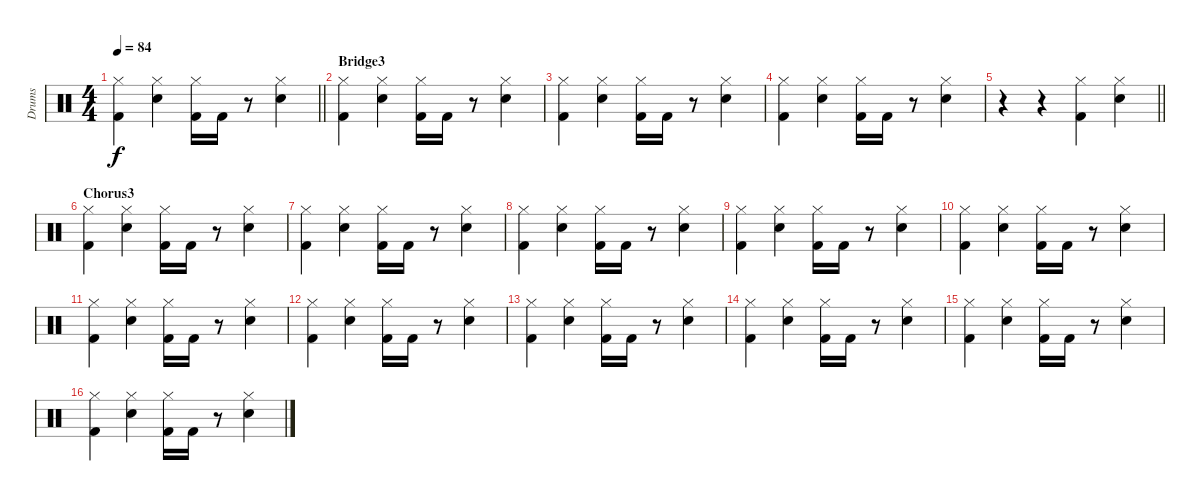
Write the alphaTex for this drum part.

\track ("Drums" "Drums") {instrument percussion}
\staff {score}
\articulation defaults
\ts (4 4)
\tempo 84
\clef neutral
\barLineRight lightlight
\ks c
("Hi-Hat (closed)" "Kick (hit) 2").4{dy f} ("Hi-Hat (closed)" "Snare (hit) 2").4 ("Hi-Hat (closed)" "Kick (hit) 2").16 "Kick (hit) 2".16 r.8 ("Hi-Hat (closed)" "Snare (hit) 2").4 |
\section ("" "Bridge3")
("Hi-Hat (closed)" "Kick (hit) 2").4 ("Hi-Hat (closed)" "Snare (hit) 2").4 ("Hi-Hat (closed)" "Kick (hit) 2").16 "Kick (hit) 2".16 r.8 ("Hi-Hat (closed)" "Snare (hit) 2").4 |
("Hi-Hat (closed)" "Kick (hit) 2").4 ("Hi-Hat (closed)" "Snare (hit) 2").4 ("Hi-Hat (closed)" "Kick (hit) 2").16 "Kick (hit) 2".16 r.8 ("Hi-Hat (closed)" "Snare (hit) 2").4 |
("Hi-Hat (closed)" "Kick (hit) 2").4 ("Hi-Hat (closed)" "Snare (hit) 2").4 ("Hi-Hat (closed)" "Kick (hit) 2").16 "Kick (hit) 2".16 r.8 ("Hi-Hat (closed)" "Snare (hit) 2").4 |
\barLineRight lightlight
r.4 r.4 ("Hi-Hat (closed)" "Kick (hit) 2").4 ("Hi-Hat (closed)" "Snare (hit) 2").4 |
\section ("" "Chorus3")
("Hi-Hat (closed)" "Kick (hit) 2").4 ("Hi-Hat (closed)" "Snare (hit) 2").4 ("Hi-Hat (closed)" "Kick (hit) 2").16 "Kick (hit) 2".16 r.8 ("Hi-Hat (closed)" "Snare (hit) 2").4 |
("Hi-Hat (closed)" "Kick (hit) 2").4 ("Hi-Hat (closed)" "Snare (hit) 2").4 ("Hi-Hat (closed)" "Kick (hit) 2").16 "Kick (hit) 2".16 r.8 ("Hi-Hat (closed)" "Snare (hit) 2").4 |
("Hi-Hat (closed)" "Kick (hit) 2").4 ("Hi-Hat (closed)" "Snare (hit) 2").4 ("Hi-Hat (closed)" "Kick (hit) 2").16 "Kick (hit) 2".16 r.8 ("Hi-Hat (closed)" "Snare (hit) 2").4 |
("Hi-Hat (closed)" "Kick (hit) 2").4 ("Hi-Hat (closed)" "Snare (hit) 2").4 ("Hi-Hat (closed)" "Kick (hit) 2").16 "Kick (hit) 2".16 r.8 ("Hi-Hat (closed)" "Snare (hit) 2").4 |
("Hi-Hat (closed)" "Kick (hit) 2").4 ("Hi-Hat (closed)" "Snare (hit) 2").4 ("Hi-Hat (closed)" "Kick (hit) 2").16 "Kick (hit) 2".16 r.8 ("Hi-Hat (closed)" "Snare (hit) 2").4 |
("Hi-Hat (closed)" "Kick (hit) 2").4 ("Hi-Hat (closed)" "Snare (hit) 2").4 ("Hi-Hat (closed)" "Kick (hit) 2").16 "Kick (hit) 2".16 r.8 ("Hi-Hat (closed)" "Snare (hit) 2").4 |
("Hi-Hat (closed)" "Kick (hit) 2").4 ("Hi-Hat (closed)" "Snare (hit) 2").4 ("Hi-Hat (closed)" "Kick (hit) 2").16 "Kick (hit) 2".16 r.8 ("Hi-Hat (closed)" "Snare (hit) 2").4 |
("Hi-Hat (closed)" "Kick (hit) 2").4 ("Hi-Hat (closed)" "Snare (hit) 2").4 ("Hi-Hat (closed)" "Kick (hit) 2").16 "Kick (hit) 2".16 r.8 ("Hi-Hat (closed)" "Snare (hit) 2").4 |
("Hi-Hat (closed)" "Kick (hit) 2").4 ("Hi-Hat (closed)" "Snare (hit) 2").4 ("Hi-Hat (closed)" "Kick (hit) 2").16 "Kick (hit) 2".16 r.8 ("Hi-Hat (closed)" "Snare (hit) 2").4 |
("Hi-Hat (closed)" "Kick (hit) 2").4 ("Hi-Hat (closed)" "Snare (hit) 2").4 ("Hi-Hat (closed)" "Kick (hit) 2").16 "Kick (hit) 2".16 r.8 ("Hi-Hat (closed)" "Snare (hit) 2").4 |
("Hi-Hat (closed)" "Kick (hit) 2").4 ("Hi-Hat (closed)" "Snare (hit) 2").4 ("Hi-Hat (closed)" "Kick (hit) 2").16 "Kick (hit) 2".16 r.8 ("Hi-Hat (closed)" "Snare (hit) 2").4
